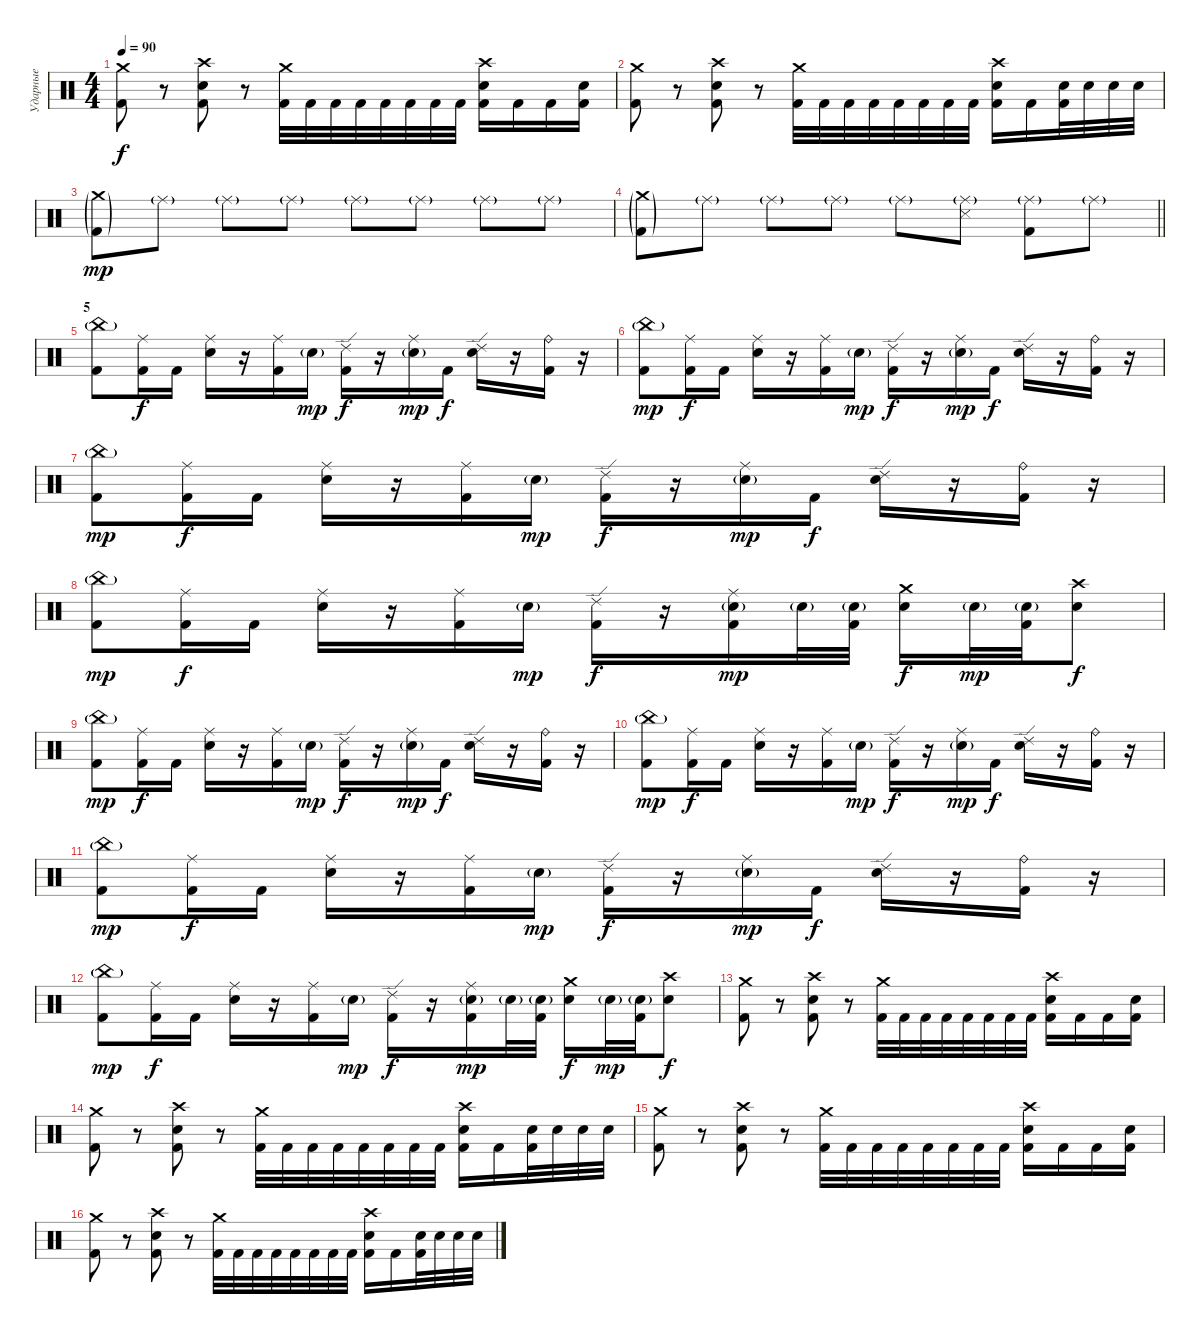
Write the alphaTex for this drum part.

\track ("Ударные" "Ударные") {instrument percussion}
\staff {score}
\articulation defaults
\ts (4 4)
\tempo 90
\clef neutral
\ks c
("Kick (hit) 2" "Crash medium (hit)").8{dy f} r.8 ("Kick (hit) 2" "Electric Snare (hit)" "Crash high (hit)").8 r.8 ("Kick (hit) 2" "Crash medium (hit)").32 "Kick (hit) 2".32 "Kick (hit) 2".32 "Kick (hit) 2".32 "Kick (hit) 2".32 "Kick (hit) 2".32 "Kick (hit) 2".32 "Kick (hit) 2".32 ("Kick (hit) 2" "Electric Snare (hit)" "Crash high (hit)").16 "Kick (hit) 2".16 "Kick (hit) 2".16 ("Kick (hit) 2" "Electric Snare (hit)").16 |
("Kick (hit) 2" "Crash medium (hit)").8 r.8 ("Kick (hit) 2" "Electric Snare (hit)" "Crash high (hit)").8 r.8 ("Kick (hit) 2" "Crash medium (hit)").32 "Kick (hit) 2".32 "Kick (hit) 2".32 "Kick (hit) 2".32 "Kick (hit) 2".32 "Kick (hit) 2".32 "Kick (hit) 2".32 "Kick (hit) 2".32 ("Kick (hit) 2" "Electric Snare (hit)" "Crash high (hit)").16 "Kick (hit) 2".16 ("Kick (hit) 2" "Electric Snare (hit)").32 "Electric Snare (hit)".32 "Electric Snare (hit)".32 "Electric Snare (hit)".32 |
("Crash medium (hit)"{g} "Kick (hit) 2"{g}).8{dy mp} "Ride (middle)"{g}.8 "Ride (middle)"{g}.8 "Ride (middle)"{g}.8 "Ride (middle)"{g}.8 "Ride (middle)"{g}.8 "Ride (middle)"{g}.8 "Ride (middle)"{g}.8 |
\barLineRight lightlight
("Crash medium (hit)"{g} "Kick (hit) 2"{g}).8 "Ride (middle)"{g}.8 "Ride (middle)"{g}.8 "Ride (middle)"{g}.8 "Ride (middle)"{g}.8 ("Ride (middle)"{g} "Snare (side stick) 3").8 ("Ride (middle)"{g} "Kick (hit) 2").8 "Ride (middle)"{g}.8 |
\section ("" "5")
("China (hit)"{g} "Kick (hit) 2").8 ("Ride (middle)" "Kick (hit) 2").16{dy f} "Kick (hit) 2".16 ("Ride (middle)" "Electric Snare (hit)").16 r.16 ("Kick (hit) 2" "Ride (middle)").16 "Electric Snare (hit)"{g}.16{dy mp} ("Kick (hit) 2" "Ride (edge) 2").16{dy f} r.16 ("Ride (middle)" "Electric Snare (hit)"{g}).16{dy mp} "Kick (hit) 2".16{dy f} ("Electric Snare (hit)" "Ride (edge) 2").16 r.16 ("Kick (hit) 2" "Ride (bell)").16 r.16 |
("China (hit)"{g} "Kick (hit) 2").8{dy mp} ("Ride (middle)" "Kick (hit) 2").16{dy f} "Kick (hit) 2".16 ("Ride (middle)" "Electric Snare (hit)").16 r.16 ("Kick (hit) 2" "Ride (middle)").16 "Electric Snare (hit)"{g}.16{dy mp} ("Kick (hit) 2" "Ride (edge) 2").16{dy f} r.16 ("Ride (middle)" "Electric Snare (hit)"{g}).16{dy mp} "Kick (hit) 2".16{dy f} ("Electric Snare (hit)" "Ride (edge) 2").16 r.16 ("Kick (hit) 2" "Ride (bell)").16 r.16 |
("China (hit)"{g} "Kick (hit) 2").8{dy mp} ("Ride (middle)" "Kick (hit) 2").16{dy f} "Kick (hit) 2".16 ("Ride (middle)" "Electric Snare (hit)").16 r.16 ("Kick (hit) 2" "Ride (middle)").16 "Electric Snare (hit)"{g}.16{dy mp} ("Kick (hit) 2" "Ride (edge) 2").16{dy f} r.16 ("Ride (middle)" "Electric Snare (hit)"{g}).16{dy mp} "Kick (hit) 2".16{dy f} ("Electric Snare (hit)" "Ride (edge) 2").16 r.16 ("Kick (hit) 2" "Ride (bell)").16 r.16 |
("China (hit)"{g} "Kick (hit) 2").8{dy mp} ("Ride (middle)" "Kick (hit) 2").16{dy f} "Kick (hit) 2".16 ("Ride (middle)" "Electric Snare (hit)").16 r.16 ("Kick (hit) 2" "Ride (middle)").16 "Electric Snare (hit)"{g}.16{dy mp} ("Kick (hit) 2" "Ride (edge) 2").16{dy f} r.16 ("Ride (middle)" "Electric Snare (hit)"{g} "Kick (hit) 2").16{dy mp} "Electric Snare (hit)"{g}.32 ("Electric Snare (hit)"{g} "Kick (hit) 2").32 ("Electric Snare (hit)" "Crash medium (hit)").16{dy f} "Electric Snare (hit)"{g}.32{dy mp} ("Electric Snare (hit)"{g} "Kick (hit) 2").32 ("Electric Snare (hit)" "Crash high (hit)").8{dy f} |
("China (hit)"{g} "Kick (hit) 2").8{dy mp} ("Ride (middle)" "Kick (hit) 2").16{dy f} "Kick (hit) 2".16 ("Ride (middle)" "Electric Snare (hit)").16 r.16 ("Kick (hit) 2" "Ride (middle)").16 "Electric Snare (hit)"{g}.16{dy mp} ("Kick (hit) 2" "Ride (edge) 2").16{dy f} r.16 ("Ride (middle)" "Electric Snare (hit)"{g}).16{dy mp} "Kick (hit) 2".16{dy f} ("Electric Snare (hit)" "Ride (edge) 2").16 r.16 ("Kick (hit) 2" "Ride (bell)").16 r.16 |
("China (hit)"{g} "Kick (hit) 2").8{dy mp} ("Ride (middle)" "Kick (hit) 2").16{dy f} "Kick (hit) 2".16 ("Ride (middle)" "Electric Snare (hit)").16 r.16 ("Kick (hit) 2" "Ride (middle)").16 "Electric Snare (hit)"{g}.16{dy mp} ("Kick (hit) 2" "Ride (edge) 2").16{dy f} r.16 ("Ride (middle)" "Electric Snare (hit)"{g}).16{dy mp} "Kick (hit) 2".16{dy f} ("Electric Snare (hit)" "Ride (edge) 2").16 r.16 ("Kick (hit) 2" "Ride (bell)").16 r.16 |
("China (hit)"{g} "Kick (hit) 2").8{dy mp} ("Ride (middle)" "Kick (hit) 2").16{dy f} "Kick (hit) 2".16 ("Ride (middle)" "Electric Snare (hit)").16 r.16 ("Kick (hit) 2" "Ride (middle)").16 "Electric Snare (hit)"{g}.16{dy mp} ("Kick (hit) 2" "Ride (edge) 2").16{dy f} r.16 ("Ride (middle)" "Electric Snare (hit)"{g}).16{dy mp} "Kick (hit) 2".16{dy f} ("Electric Snare (hit)" "Ride (edge) 2").16 r.16 ("Kick (hit) 2" "Ride (bell)").16 r.16 |
("China (hit)"{g} "Kick (hit) 2").8{dy mp} ("Ride (middle)" "Kick (hit) 2").16{dy f} "Kick (hit) 2".16 ("Ride (middle)" "Electric Snare (hit)").16 r.16 ("Kick (hit) 2" "Ride (middle)").16 "Electric Snare (hit)"{g}.16{dy mp} ("Kick (hit) 2" "Ride (edge) 2").16{dy f} r.16 ("Ride (middle)" "Electric Snare (hit)"{g} "Kick (hit) 2").16{dy mp} "Electric Snare (hit)"{g}.32 ("Electric Snare (hit)"{g} "Kick (hit) 2").32 ("Electric Snare (hit)" "Crash medium (hit)").16{dy f} "Electric Snare (hit)"{g}.32{dy mp} ("Electric Snare (hit)"{g} "Kick (hit) 2").32 ("Electric Snare (hit)" "Crash high (hit)").8{dy f} |
("Kick (hit) 2" "Crash medium (hit)").8 r.8 ("Kick (hit) 2" "Electric Snare (hit)" "Crash high (hit)").8 r.8 ("Kick (hit) 2" "Crash medium (hit)").32 "Kick (hit) 2".32 "Kick (hit) 2".32 "Kick (hit) 2".32 "Kick (hit) 2".32 "Kick (hit) 2".32 "Kick (hit) 2".32 "Kick (hit) 2".32 ("Kick (hit) 2" "Electric Snare (hit)" "Crash high (hit)").16 "Kick (hit) 2".16 "Kick (hit) 2".16 ("Kick (hit) 2" "Electric Snare (hit)").16 |
("Kick (hit) 2" "Crash medium (hit)").8 r.8 ("Kick (hit) 2" "Electric Snare (hit)" "Crash high (hit)").8 r.8 ("Kick (hit) 2" "Crash medium (hit)").32 "Kick (hit) 2".32 "Kick (hit) 2".32 "Kick (hit) 2".32 "Kick (hit) 2".32 "Kick (hit) 2".32 "Kick (hit) 2".32 "Kick (hit) 2".32 ("Kick (hit) 2" "Electric Snare (hit)" "Crash high (hit)").16 "Kick (hit) 2".16 ("Kick (hit) 2" "Electric Snare (hit)").32 "Electric Snare (hit)".32 "Electric Snare (hit)".32 "Electric Snare (hit)".32 |
("Kick (hit) 2" "Crash medium (hit)").8 r.8 ("Kick (hit) 2" "Electric Snare (hit)" "Crash high (hit)").8 r.8 ("Kick (hit) 2" "Crash medium (hit)").32 "Kick (hit) 2".32 "Kick (hit) 2".32 "Kick (hit) 2".32 "Kick (hit) 2".32 "Kick (hit) 2".32 "Kick (hit) 2".32 "Kick (hit) 2".32 ("Kick (hit) 2" "Electric Snare (hit)" "Crash high (hit)").16 "Kick (hit) 2".16 "Kick (hit) 2".16 ("Kick (hit) 2" "Electric Snare (hit)").16 |
("Kick (hit) 2" "Crash medium (hit)").8 r.8 ("Kick (hit) 2" "Electric Snare (hit)" "Crash high (hit)").8 r.8 ("Kick (hit) 2" "Crash medium (hit)").32 "Kick (hit) 2".32 "Kick (hit) 2".32 "Kick (hit) 2".32 "Kick (hit) 2".32 "Kick (hit) 2".32 "Kick (hit) 2".32 "Kick (hit) 2".32 ("Kick (hit) 2" "Electric Snare (hit)" "Crash high (hit)").16 "Kick (hit) 2".16 ("Kick (hit) 2" "Electric Snare (hit)").32 "Electric Snare (hit)".32 "Electric Snare (hit)".32 "Electric Snare (hit)".32
